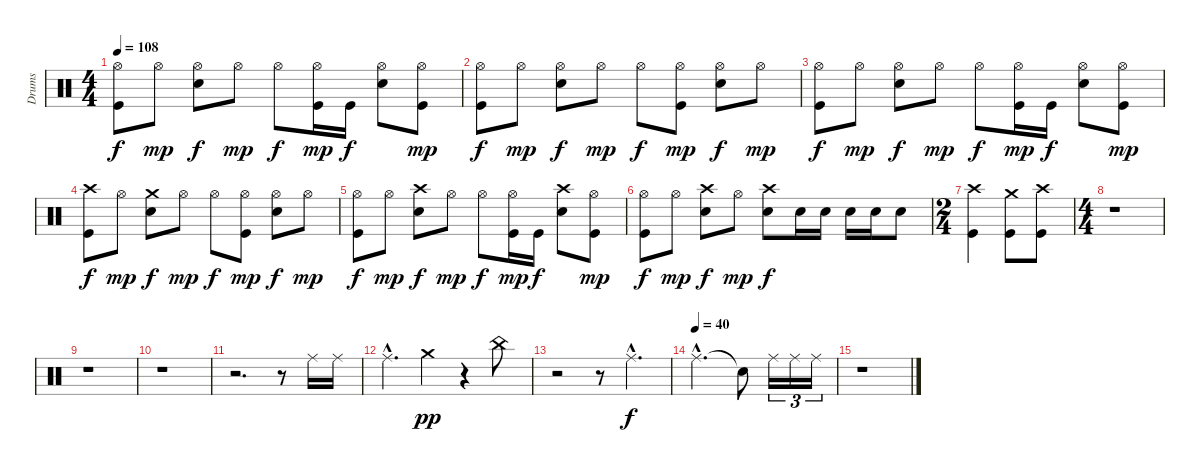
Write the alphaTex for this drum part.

\track ("Drums" "Drums") {instrument percussion}
\staff {score}
\articulation defaults
\ts (4 4)
\tempo 108
\clef neutral
\ks c
("Hi-Hat (open)" "Kick (hit)").8{dy f} "Hi-Hat (open)".8{dy mp} ("Hi-Hat (open)" "Snare (hit) 2").8{dy f} "Hi-Hat (open)".8{dy mp} "Hi-Hat (open)".8{dy f} ("Hi-Hat (open)" "Kick (hit)").16{dy mp} "Kick (hit)".16{dy f} ("Hi-Hat (open)" "Snare (hit) 2").8 ("Hi-Hat (open)" "Kick (hit)").8{dy mp} |
("Hi-Hat (open)" "Kick (hit)").8{dy f} "Hi-Hat (open)".8{dy mp} ("Hi-Hat (open)" "Snare (hit) 2").8{dy f} "Hi-Hat (open)".8{dy mp} "Hi-Hat (open)".8{dy f} ("Hi-Hat (open)" "Kick (hit)").8{dy mp} ("Hi-Hat (open)" "Snare (hit) 2").8{dy f} "Hi-Hat (open)".8{dy mp} |
("Hi-Hat (open)" "Kick (hit)").8{dy f} "Hi-Hat (open)".8{dy mp} ("Hi-Hat (open)" "Snare (hit) 2").8{dy f} "Hi-Hat (open)".8{dy mp} "Hi-Hat (open)".8{dy f} ("Hi-Hat (open)" "Kick (hit)").16{dy mp} "Kick (hit)".16{dy f} ("Hi-Hat (open)" "Snare (hit) 2").8 ("Hi-Hat (open)" "Kick (hit)").8{dy mp} |
("Crash high (hit)" "Kick (hit)").8{dy f} "Hi-Hat (open)".8{dy mp} ("Crash medium (hit)" "Snare (hit) 2").8{dy f} "Hi-Hat (open)".8{dy mp} "Hi-Hat (open)".8{dy f} ("Hi-Hat (open)" "Kick (hit)").8{dy mp} ("Hi-Hat (open)" "Snare (hit) 2").8{dy f} "Hi-Hat (open)".8{dy mp} |
("Hi-Hat (open)" "Kick (hit)").8{dy f} "Hi-Hat (open)".8{dy mp} ("Crash high (hit)" "Snare (hit) 2").8{dy f} "Hi-Hat (open)".8{dy mp} "Hi-Hat (open)".8{dy f} ("Hi-Hat (open)" "Kick (hit)").16{dy mp} "Kick (hit)".16{dy f} ("Crash high (hit)" "Snare (hit) 2").8 ("Hi-Hat (open)" "Kick (hit)").8{dy mp} |
("Hi-Hat (open)" "Kick (hit)").8{dy f} "Hi-Hat (open)".8{dy mp} ("Crash high (hit)" "Snare (hit) 2").8{dy f} "Hi-Hat (open)".8{dy mp} ("Crash high (hit)" "Snare (hit) 2").8{dy f} "Snare (hit) 2".16 "Snare (hit) 2".16 "Snare (hit) 2".16 "Snare (hit) 2".16 "Snare (hit) 2".8 |
\ts (2 4)
("Crash high (hit)" "Kick (hit)").4 ("Crash medium (hit)" "Kick (hit)").8 ("Crash high (hit)" "Kick (hit)").8 |
\ts (4 4)
r.1 |
r.1 |
r.1 |
r.2{d} r.8 "Ride (middle)".16 "Ride (middle)".16 |
"Ride (middle)"{hac}.4{d} "Crash medium (hit)".4{dy pp} r.4 "China (hit)".8 |
r.2 r.8 "Ride (middle)"{hac}.4{d dy f} |
\tempo (40)
"Ride (middle)"{hac}.2{d} "Snare (hit)"{t}.8 "Ride (middle)".16{tu (3 2)} "Ride (middle)".16{tu (3 2)} "Ride (middle)".16{tu (3 2)} |
r.1{volume 0}
